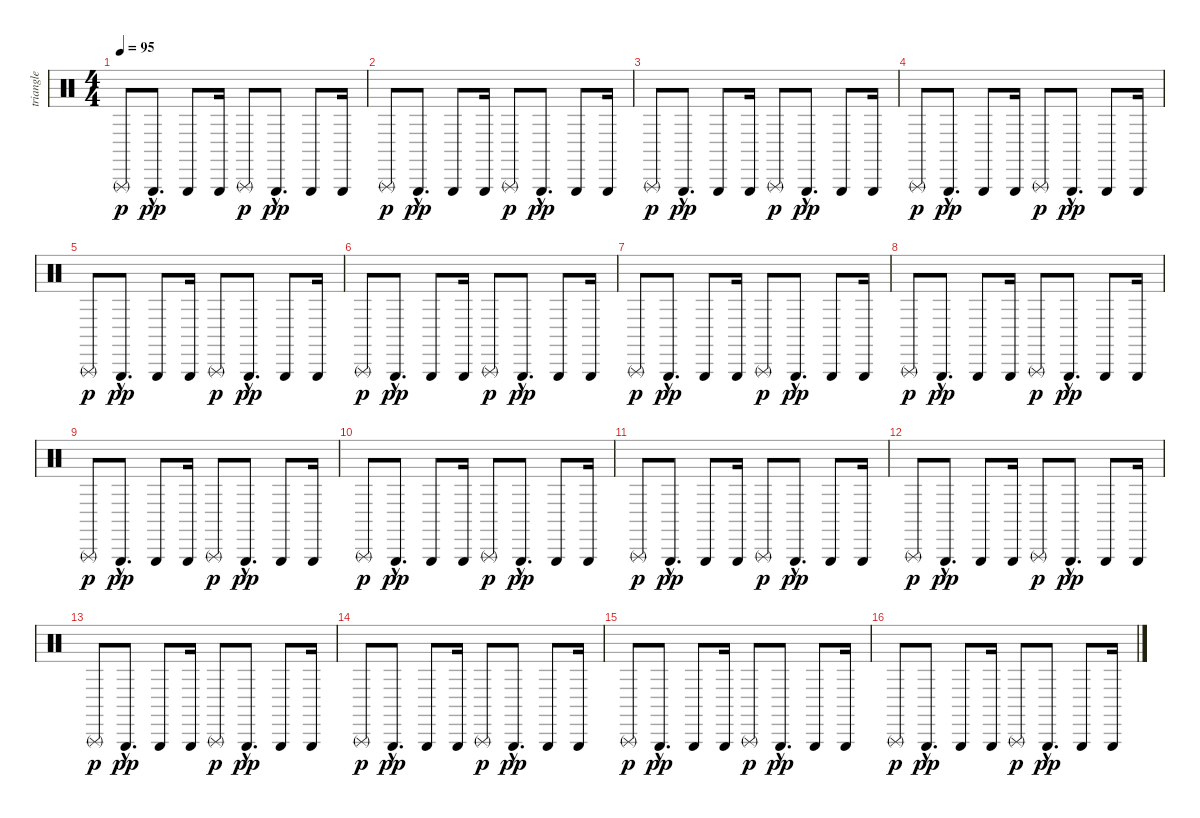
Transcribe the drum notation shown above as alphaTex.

\track ("triangle" "triangle") {instrument percussion}
\staff {score}
\articulation defaults
\ts (4 4)
\tempo 95
\clef neutral
\ks c "Triangle (rnute)".8{dy p} "Triangle (hit)"{hac}.8{d dy pp} "Triangle (hit)".8 "Triangle (hit)".16 "Triangle (rnute)".8{dy p} "Triangle (hit)"{hac}.8{d dy pp} "Triangle (hit)".8 "Triangle (hit)".16
|
"Triangle (rnute)".8{dy p} "Triangle (hit)"{hac}.8{d dy pp} "Triangle (hit)".8 "Triangle (hit)".16 "Triangle (rnute)".8{dy p} "Triangle (hit)"{hac}.8{d dy pp} "Triangle (hit)".8 "Triangle (hit)".16 |
"Triangle (rnute)".8{dy p} "Triangle (hit)"{hac}.8{d dy pp} "Triangle (hit)".8 "Triangle (hit)".16 "Triangle (rnute)".8{dy p} "Triangle (hit)"{hac}.8{d dy pp} "Triangle (hit)".8 "Triangle (hit)".16 |
"Triangle (rnute)".8{dy p} "Triangle (hit)"{hac}.8{d dy pp} "Triangle (hit)".8 "Triangle (hit)".16 "Triangle (rnute)".8{dy p} "Triangle (hit)"{hac}.8{d dy pp} "Triangle (hit)".8 "Triangle (hit)".16 |
"Triangle (rnute)".8{dy p} "Triangle (hit)"{hac}.8{d dy pp} "Triangle (hit)".8 "Triangle (hit)".16 "Triangle (rnute)".8{dy p} "Triangle (hit)"{hac}.8{d dy pp} "Triangle (hit)".8 "Triangle (hit)".16 |
"Triangle (rnute)".8{dy p} "Triangle (hit)"{hac}.8{d dy pp} "Triangle (hit)".8 "Triangle (hit)".16 "Triangle (rnute)".8{dy p} "Triangle (hit)"{hac}.8{d dy pp} "Triangle (hit)".8 "Triangle (hit)".16 |
"Triangle (rnute)".8{dy p} "Triangle (hit)"{hac}.8{d dy pp} "Triangle (hit)".8 "Triangle (hit)".16 "Triangle (rnute)".8{dy p} "Triangle (hit)"{hac}.8{d dy pp} "Triangle (hit)".8 "Triangle (hit)".16 |
"Triangle (rnute)".8{dy p} "Triangle (hit)"{hac}.8{d dy pp} "Triangle (hit)".8 "Triangle (hit)".16 "Triangle (rnute)".8{dy p} "Triangle (hit)"{hac}.8{d dy pp} "Triangle (hit)".8 "Triangle (hit)".16 |
"Triangle (rnute)".8{dy p} "Triangle (hit)"{hac}.8{d dy pp} "Triangle (hit)".8 "Triangle (hit)".16 "Triangle (rnute)".8{dy p} "Triangle (hit)"{hac}.8{d dy pp} "Triangle (hit)".8 "Triangle (hit)".16 |
"Triangle (rnute)".8{dy p} "Triangle (hit)"{hac}.8{d dy pp} "Triangle (hit)".8 "Triangle (hit)".16 "Triangle (rnute)".8{dy p} "Triangle (hit)"{hac}.8{d dy pp} "Triangle (hit)".8 "Triangle (hit)".16 |
"Triangle (rnute)".8{dy p} "Triangle (hit)"{hac}.8{d dy pp} "Triangle (hit)".8 "Triangle (hit)".16 "Triangle (rnute)".8{dy p} "Triangle (hit)"{hac}.8{d dy pp} "Triangle (hit)".8 "Triangle (hit)".16 |
"Triangle (rnute)".8{dy p} "Triangle (hit)"{hac}.8{d dy pp} "Triangle (hit)".8 "Triangle (hit)".16 "Triangle (rnute)".8{dy p} "Triangle (hit)"{hac}.8{d dy pp} "Triangle (hit)".8 "Triangle (hit)".16 |
"Triangle (rnute)".8{dy p} "Triangle (hit)"{hac}.8{d dy pp} "Triangle (hit)".8 "Triangle (hit)".16 "Triangle (rnute)".8{dy p} "Triangle (hit)"{hac}.8{d dy pp} "Triangle (hit)".8 "Triangle (hit)".16 |
"Triangle (rnute)".8{dy p} "Triangle (hit)"{hac}.8{d dy pp} "Triangle (hit)".8 "Triangle (hit)".16 "Triangle (rnute)".8{dy p} "Triangle (hit)"{hac}.8{d dy pp} "Triangle (hit)".8 "Triangle (hit)".16 |
"Triangle (rnute)".8{dy p} "Triangle (hit)"{hac}.8{d dy pp} "Triangle (hit)".8 "Triangle (hit)".16 "Triangle (rnute)".8{dy p} "Triangle (hit)"{hac}.8{d dy pp} "Triangle (hit)".8 "Triangle (hit)".16 |
"Triangle (rnute)".8{dy p} "Triangle (hit)"{hac}.8{d dy pp} "Triangle (hit)".8 "Triangle (hit)".16 "Triangle (rnute)".8{dy p} "Triangle (hit)"{hac}.8{d dy pp} "Triangle (hit)".8 "Triangle (hit)".16
